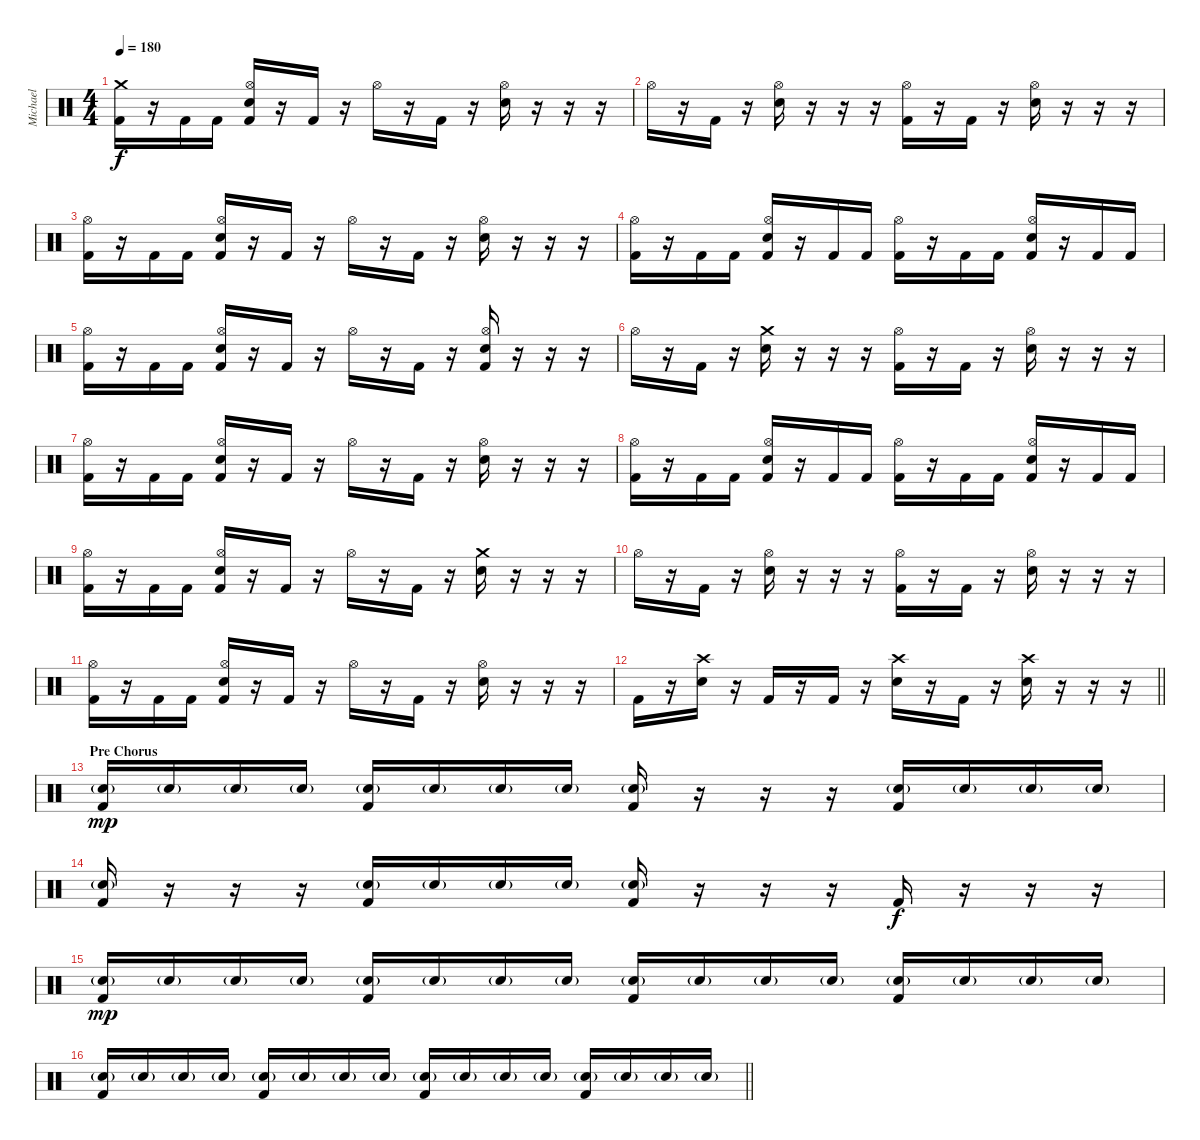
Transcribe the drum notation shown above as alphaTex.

\track ("Michael" "Michael") {instrument percussion}
\staff {score}
\articulation defaults
\ts (4 4)
\tempo 180
\clef neutral
\ks c
("Crash medium (hit)" "Kick (hit) 2").16{dy f} r.16 "Kick (hit) 2".16 "Kick (hit) 2".16 ("Hi-Hat (open)" "Electric Snare (hit)" "Kick (hit) 2").16 r.16 "Kick (hit) 2".16 r.16 "Hi-Hat (open)".16 r.16 "Kick (hit) 2".16 r.16 ("Hi-Hat (open)" "Electric Snare (hit)").16 r.16 r.16 r.16 |
"Hi-Hat (open)".16 r.16 "Kick (hit) 2".16 r.16 ("Hi-Hat (open)" "Electric Snare (hit)").16 r.16 r.16 r.16 ("Hi-Hat (open)" "Kick (hit) 2").16 r.16 "Kick (hit) 2".16 r.16 ("Hi-Hat (open)" "Electric Snare (hit)").16 r.16 r.16 r.16 |
("Hi-Hat (open)" "Kick (hit) 2").16 r.16 "Kick (hit) 2".16 "Kick (hit) 2".16 ("Hi-Hat (open)" "Electric Snare (hit)" "Kick (hit) 2").16 r.16 "Kick (hit) 2".16 r.16 "Hi-Hat (open)".16 r.16 "Kick (hit) 2".16 r.16 ("Hi-Hat (open)" "Electric Snare (hit)").16 r.16 r.16 r.16 |
("Hi-Hat (open)" "Kick (hit) 2").16 r.16 "Kick (hit) 2".16 "Kick (hit) 2".16 ("Hi-Hat (open)" "Electric Snare (hit)" "Kick (hit) 2").16 r.16 "Kick (hit) 2".16 "Kick (hit) 2".16 ("Hi-Hat (open)" "Kick (hit) 2").16 r.16 "Kick (hit) 2".16 "Kick (hit) 2".16 ("Hi-Hat (open)" "Electric Snare (hit)" "Kick (hit) 2").16 r.16 "Kick (hit) 2".16 "Kick (hit) 2".16 |
("Hi-Hat (open)" "Kick (hit) 2").16 r.16 "Kick (hit) 2".16 "Kick (hit) 2".16 ("Hi-Hat (open)" "Electric Snare (hit)" "Kick (hit) 2").16 r.16 "Kick (hit) 2".16 r.16 "Hi-Hat (open)".16 r.16 "Kick (hit) 2".16 r.16 ("Hi-Hat (open)" "Electric Snare (hit)" "Kick (hit) 2").16 r.16 r.16 r.16 |
"Hi-Hat (open)".16 r.16 "Kick (hit) 2".16 r.16 ("Crash medium (hit)" "Electric Snare (hit)").16 r.16 r.16 r.16 ("Hi-Hat (open)" "Kick (hit) 2").16 r.16 "Kick (hit) 2".16 r.16 ("Hi-Hat (open)" "Electric Snare (hit)").16 r.16 r.16 r.16 |
("Hi-Hat (open)" "Kick (hit) 2").16 r.16 "Kick (hit) 2".16 "Kick (hit) 2".16 ("Hi-Hat (open)" "Electric Snare (hit)" "Kick (hit) 2").16 r.16 "Kick (hit) 2".16 r.16 "Hi-Hat (open)".16 r.16 "Kick (hit) 2".16 r.16 ("Hi-Hat (open)" "Electric Snare (hit)").16 r.16 r.16 r.16 |
("Hi-Hat (open)" "Kick (hit) 2").16 r.16 "Kick (hit) 2".16 "Kick (hit) 2".16 ("Hi-Hat (open)" "Electric Snare (hit)" "Kick (hit) 2").16 r.16 "Kick (hit) 2".16 "Kick (hit) 2".16 ("Hi-Hat (open)" "Kick (hit) 2").16 r.16 "Kick (hit) 2".16 "Kick (hit) 2".16 ("Hi-Hat (open)" "Electric Snare (hit)" "Kick (hit) 2").16 r.16 "Kick (hit) 2".16 "Kick (hit) 2".16 |
("Hi-Hat (open)" "Kick (hit) 2").16 r.16 "Kick (hit) 2".16 "Kick (hit) 2".16 ("Hi-Hat (open)" "Electric Snare (hit)" "Kick (hit) 2").16 r.16 "Kick (hit) 2".16 r.16 "Hi-Hat (open)".16 r.16 "Kick (hit) 2".16 r.16 ("Crash medium (hit)" "Electric Snare (hit)").16 r.16 r.16 r.16 |
"Hi-Hat (open)".16 r.16 "Kick (hit) 2".16 r.16 ("Hi-Hat (open)" "Electric Snare (hit)").16 r.16 r.16 r.16 ("Hi-Hat (open)" "Kick (hit) 2").16 r.16 "Kick (hit) 2".16 r.16 ("Hi-Hat (open)" "Electric Snare (hit)").16 r.16 r.16 r.16 |
("Hi-Hat (open)" "Kick (hit) 2").16 r.16 "Kick (hit) 2".16 "Kick (hit) 2".16 ("Hi-Hat (open)" "Electric Snare (hit)" "Kick (hit) 2").16 r.16 "Kick (hit) 2".16 r.16 "Hi-Hat (open)".16 r.16 "Kick (hit) 2".16 r.16 ("Hi-Hat (open)" "Electric Snare (hit)").16 r.16 r.16 r.16 |
\barLineRight lightlight "Kick (hit) 2".16
r.16 ("Crash high (hit)" "Electric Snare (hit)").16 r.16 "Kick (hit) 2".16 r.16 "Kick (hit) 2".16 r.16 ("Crash high (hit)" "Electric Snare (hit)").16 r.16 "Kick (hit) 2".16 r.16 ("Crash high (hit)" "Electric Snare (hit)").16 r.16 r.16 r.16 |
\section ("" "Pre Chorus")
("Electric Snare (hit)"{g} "Kick (hit) 2").16{dy mp} "Electric Snare (hit)"{g}.16 "Electric Snare (hit)"{g}.16 "Electric Snare (hit)"{g}.16 ("Electric Snare (hit)"{g} "Kick (hit) 2").16 "Electric Snare (hit)"{g}.16 "Electric Snare (hit)"{g}.16 "Electric Snare (hit)"{g}.16 ("Electric Snare (hit)"{g} "Kick (hit) 2").16 r.16 r.16 r.16 ("Electric Snare (hit)"{g} "Kick (hit) 2").16 "Electric Snare (hit)"{g}.16 "Electric Snare (hit)"{g}.16 "Electric Snare (hit)"{g}.16 |
("Electric Snare (hit)"{g} "Kick (hit) 2").16 r.16 r.16 r.16 ("Electric Snare (hit)"{g} "Kick (hit) 2").16 "Electric Snare (hit)"{g}.16 "Electric Snare (hit)"{g}.16 "Electric Snare (hit)"{g}.16 ("Electric Snare (hit)"{g} "Kick (hit) 2").16 r.16 r.16 r.16 "Kick (hit) 2".16{dy f} r.16 r.16 r.16 |
("Electric Snare (hit)"{g} "Kick (hit) 2").16{dy mp} "Electric Snare (hit)"{g}.16 "Electric Snare (hit)"{g}.16 "Electric Snare (hit)"{g}.16 ("Electric Snare (hit)"{g} "Kick (hit) 2").16 "Electric Snare (hit)"{g}.16 "Electric Snare (hit)"{g}.16 "Electric Snare (hit)"{g}.16 ("Electric Snare (hit)"{g} "Kick (hit) 2").16 "Electric Snare (hit)"{g}.16 "Electric Snare (hit)"{g}.16 "Electric Snare (hit)"{g}.16 ("Electric Snare (hit)"{g} "Kick (hit) 2").16 "Electric Snare (hit)"{g}.16 "Electric Snare (hit)"{g}.16 "Electric Snare (hit)"{g}.16 |
\barLineRight lightlight
("Electric Snare (hit)"{g} "Kick (hit) 2").16 "Electric Snare (hit)"{g}.16 "Electric Snare (hit)"{g}.16 "Electric Snare (hit)"{g}.16 ("Electric Snare (hit)"{g} "Kick (hit) 2").16 "Electric Snare (hit)"{g}.16 "Electric Snare (hit)"{g}.16 "Electric Snare (hit)"{g}.16 ("Electric Snare (hit)"{g} "Kick (hit) 2").16 "Electric Snare (hit)"{g}.16 "Electric Snare (hit)"{g}.16 "Electric Snare (hit)"{g}.16 ("Electric Snare (hit)"{g} "Kick (hit) 2").16 "Electric Snare (hit)"{g}.16 "Electric Snare (hit)"{g}.16 "Electric Snare (hit)"{g}.16
